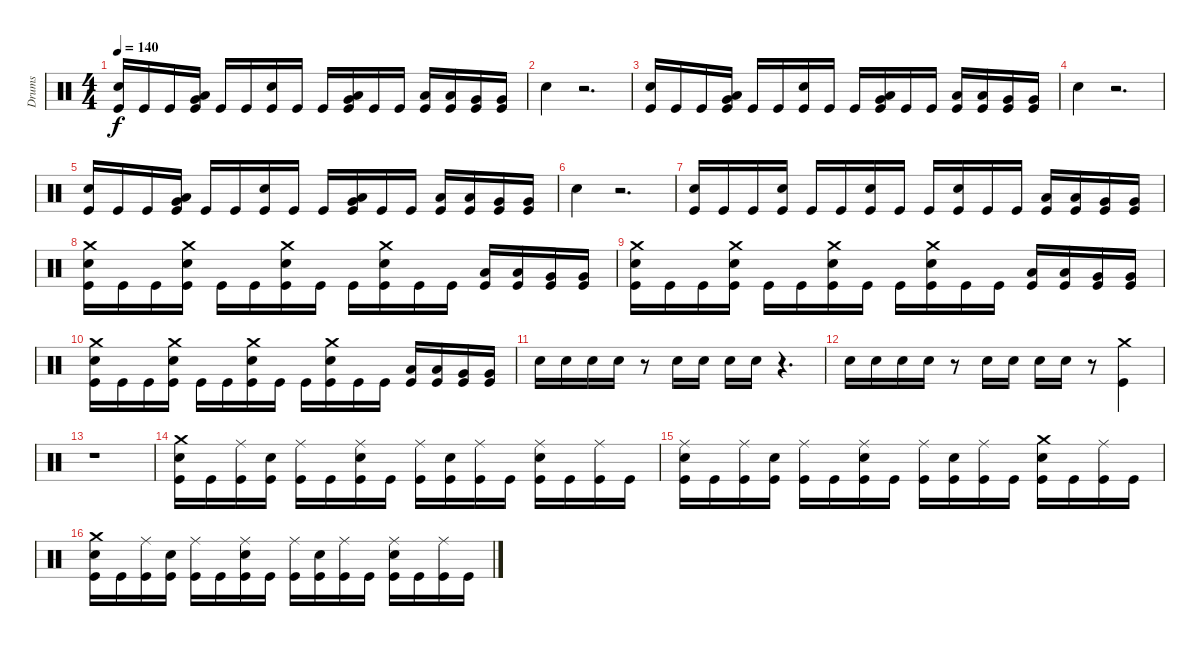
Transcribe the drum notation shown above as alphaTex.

\track ("Drums" "Drums") {instrument percussion}
\staff {score}
\articulation defaults
\ts (4 4)
\tempo 140
\clef neutral
\ks c
("Kick (hit)" "Electric Snare (hit)").16{dy f} "Kick (hit)".16 "Kick (hit)".16 ("Kick (hit)" "Low Tom (hit)" "Very Low Tom (hit)").16 "Kick (hit)".16 "Kick (hit)".16 ("Kick (hit)" "Electric Snare (hit)").16 "Kick (hit)".16 "Kick (hit)".16 ("Kick (hit)" "Low Tom (hit)" "Very Low Tom (hit)").16 "Kick (hit)".16 "Kick (hit)".16 ("Kick (hit)" "Low Tom (hit)").16 ("Kick (hit)" "Low Tom (hit)").16 ("Kick (hit)" "Very Low Tom (hit)").16 ("Kick (hit)" "Very Low Tom (hit)").16 |
"Electric Snare (hit)".4 r.2{d} |
("Kick (hit)" "Electric Snare (hit)").16 "Kick (hit)".16 "Kick (hit)".16 ("Kick (hit)" "Low Tom (hit)" "Very Low Tom (hit)").16 "Kick (hit)".16 "Kick (hit)".16 ("Kick (hit)" "Electric Snare (hit)").16 "Kick (hit)".16 "Kick (hit)".16 ("Kick (hit)" "Low Tom (hit)" "Very Low Tom (hit)").16 "Kick (hit)".16 "Kick (hit)".16 ("Kick (hit)" "Low Tom (hit)").16 ("Kick (hit)" "Low Tom (hit)").16 ("Kick (hit)" "Very Low Tom (hit)").16 ("Kick (hit)" "Very Low Tom (hit)").16 |
"Electric Snare (hit)".4 r.2{d} |
("Kick (hit)" "Electric Snare (hit)").16 "Kick (hit)".16 "Kick (hit)".16 ("Kick (hit)" "Low Tom (hit)" "Very Low Tom (hit)").16 "Kick (hit)".16 "Kick (hit)".16 ("Kick (hit)" "Electric Snare (hit)").16 "Kick (hit)".16 "Kick (hit)".16 ("Kick (hit)" "Low Tom (hit)" "Very Low Tom (hit)").16 "Kick (hit)".16 "Kick (hit)".16 ("Kick (hit)" "Low Tom (hit)").16 ("Kick (hit)" "Low Tom (hit)").16 ("Kick (hit)" "Very Low Tom (hit)").16 ("Kick (hit)" "Very Low Tom (hit)").16 |
"Electric Snare (hit)".4 r.2{d} |
("Kick (hit)" "Electric Snare (hit)").16 "Kick (hit)".16 "Kick (hit)".16 ("Kick (hit)" "Electric Snare (hit)").16 "Kick (hit)".16 "Kick (hit)".16 ("Kick (hit)" "Electric Snare (hit)").16 "Kick (hit)".16 "Kick (hit)".16 ("Kick (hit)" "Electric Snare (hit)").16 "Kick (hit)".16 "Kick (hit)".16 ("Kick (hit)" "Low Tom (hit)").16 ("Kick (hit)" "Low Tom (hit)").16 ("Kick (hit)" "Very Low Tom (hit)").16 ("Kick (hit)" "Very Low Tom (hit)").16 |
("Kick (hit)" "Electric Snare (hit)" "Crash medium (hit)").16 "Kick (hit)".16 "Kick (hit)".16 ("Kick (hit)" "Electric Snare (hit)" "Crash medium (hit)").16 "Kick (hit)".16 "Kick (hit)".16 ("Kick (hit)" "Electric Snare (hit)" "Crash medium (hit)").16 "Kick (hit)".16 "Kick (hit)".16 ("Kick (hit)" "Electric Snare (hit)" "Crash medium (hit)").16 "Kick (hit)".16 "Kick (hit)".16 ("Kick (hit)" "Low Tom (hit)").16 ("Kick (hit)" "Low Tom (hit)").16 ("Kick (hit)" "Very Low Tom (hit)").16 ("Kick (hit)" "Very Low Tom (hit)").16 |
("Kick (hit)" "Electric Snare (hit)" "Crash medium (hit)").16 "Kick (hit)".16 "Kick (hit)".16 ("Kick (hit)" "Electric Snare (hit)" "Crash medium (hit)").16 "Kick (hit)".16 "Kick (hit)".16 ("Kick (hit)" "Electric Snare (hit)" "Crash medium (hit)").16 "Kick (hit)".16 "Kick (hit)".16 ("Kick (hit)" "Electric Snare (hit)" "Crash medium (hit)").16 "Kick (hit)".16 "Kick (hit)".16 ("Kick (hit)" "Low Tom (hit)").16 ("Kick (hit)" "Low Tom (hit)").16 ("Kick (hit)" "Very Low Tom (hit)").16 ("Kick (hit)" "Very Low Tom (hit)").16 |
("Kick (hit)" "Electric Snare (hit)" "Crash medium (hit)").16 "Kick (hit)".16 "Kick (hit)".16 ("Kick (hit)" "Electric Snare (hit)" "Crash medium (hit)").16 "Kick (hit)".16 "Kick (hit)".16 ("Kick (hit)" "Electric Snare (hit)" "Crash medium (hit)").16 "Kick (hit)".16 "Kick (hit)".16 ("Kick (hit)" "Electric Snare (hit)" "Crash medium (hit)").16 "Kick (hit)".16 "Kick (hit)".16 ("Kick (hit)" "Low Tom (hit)").16 ("Kick (hit)" "Low Tom (hit)").16 ("Kick (hit)" "Very Low Tom (hit)").16 ("Kick (hit)" "Very Low Tom (hit)").16 |
"Electric Snare (hit)".16 "Electric Snare (hit)".16 "Electric Snare (hit)".16 "Electric Snare (hit)".16 r.8 "Electric Snare (hit)".16 "Electric Snare (hit)".16 "Electric Snare (hit)".16 "Electric Snare (hit)".16 r.4{d} |
"Electric Snare (hit)".16 "Electric Snare (hit)".16 "Electric Snare (hit)".16 "Electric Snare (hit)".16 r.8 "Electric Snare (hit)".16 "Electric Snare (hit)".16 "Electric Snare (hit)".16 "Electric Snare (hit)".16 r.8 ("Kick (hit)" "Crash medium (hit)").4 |
r.1 |
("Kick (hit)" "Electric Snare (hit)" "Crash medium (hit)").16 "Kick (hit)".16 ("Kick (hit)" "Ride (middle)").16 ("Kick (hit)" "Electric Snare (hit)").16 ("Kick (hit)" "Ride (middle)").16 "Kick (hit)".16 ("Kick (hit)" "Electric Snare (hit)" "Ride (middle)").16 "Kick (hit)".16 ("Kick (hit)" "Ride (middle)").16 ("Kick (hit)" "Electric Snare (hit)").16 ("Kick (hit)" "Ride (middle)").16 "Kick (hit)".16 ("Kick (hit)" "Electric Snare (hit)" "Ride (middle)").16 "Kick (hit)".16 ("Kick (hit)" "Ride (middle)").16 "Kick (hit)".16 |
("Kick (hit)" "Electric Snare (hit)" "Ride (middle)").16 "Kick (hit)".16 ("Kick (hit)" "Ride (middle)").16 ("Kick (hit)" "Electric Snare (hit)").16 ("Kick (hit)" "Ride (middle)").16 "Kick (hit)".16 ("Kick (hit)" "Electric Snare (hit)" "Ride (middle)").16 "Kick (hit)".16 ("Kick (hit)" "Ride (middle)").16 ("Kick (hit)" "Electric Snare (hit)").16 ("Kick (hit)" "Ride (middle)").16 "Kick (hit)".16 ("Kick (hit)" "Electric Snare (hit)" "Crash medium (hit)").16 "Kick (hit)".16 ("Kick (hit)" "Ride (middle)").16 "Kick (hit)".16 |
("Kick (hit)" "Electric Snare (hit)" "Crash medium (hit)").16 "Kick (hit)".16 ("Kick (hit)" "Ride (middle)").16 ("Kick (hit)" "Electric Snare (hit)").16 ("Kick (hit)" "Ride (middle)").16 "Kick (hit)".16 ("Kick (hit)" "Electric Snare (hit)" "Ride (middle)").16 "Kick (hit)".16 ("Kick (hit)" "Ride (middle)").16 ("Kick (hit)" "Electric Snare (hit)").16 ("Kick (hit)" "Ride (middle)").16 "Kick (hit)".16 ("Kick (hit)" "Electric Snare (hit)" "Ride (middle)").16 "Kick (hit)".16 ("Kick (hit)" "Ride (middle)").16 "Kick (hit)".16
